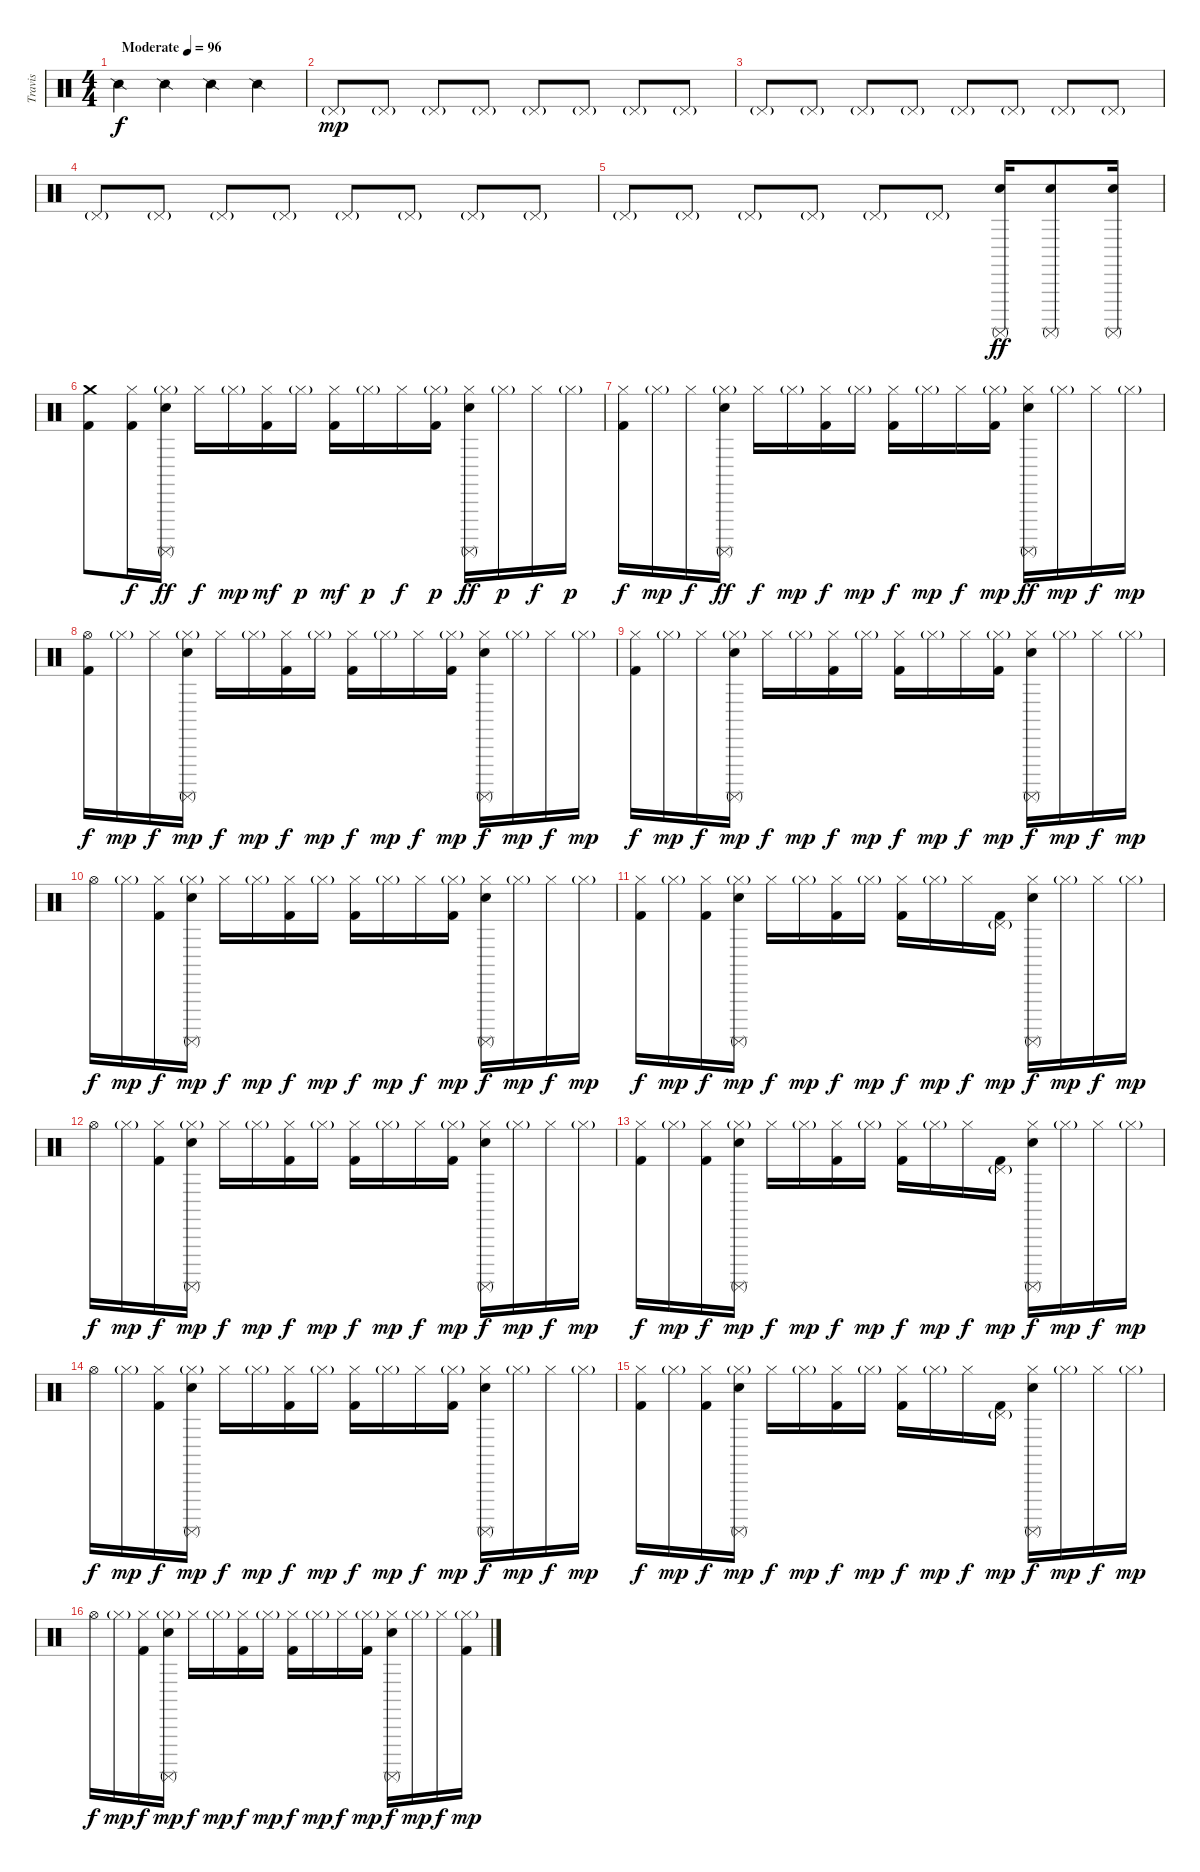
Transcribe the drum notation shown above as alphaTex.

\track ("Travis" "Travis") {instrument percussion bank 127}
\staff {score}
\articulation defaults
\ts (4 4)
\tempo (96 "Moderate")
\clef neutral
\ks c "Snare (side stick) 2".4{dy f} "Snare (side stick) 2".4 "Snare (side stick) 2".4 "Snare (side stick) 2".4
|
"Pedal Hi-Hat (hit)"{g}.8{dy mp} "Pedal Hi-Hat (hit)"{g}.8 "Pedal Hi-Hat (hit)"{g}.8 "Pedal Hi-Hat (hit)"{g}.8 "Pedal Hi-Hat (hit)"{g}.8 "Pedal Hi-Hat (hit)"{g}.8 "Pedal Hi-Hat (hit)"{g}.8 "Pedal Hi-Hat (hit)"{g}.8 |
"Pedal Hi-Hat (hit)"{g}.8 "Pedal Hi-Hat (hit)"{g}.8 "Pedal Hi-Hat (hit)"{g}.8 "Pedal Hi-Hat (hit)"{g}.8 "Pedal Hi-Hat (hit)"{g}.8 "Pedal Hi-Hat (hit)"{g}.8 "Pedal Hi-Hat (hit)"{g}.8 "Pedal Hi-Hat (hit)"{g}.8 |
"Pedal Hi-Hat (hit)"{g}.8 "Pedal Hi-Hat (hit)"{g}.8 "Pedal Hi-Hat (hit)"{g}.8 "Pedal Hi-Hat (hit)"{g}.8 "Pedal Hi-Hat (hit)"{g}.8 "Pedal Hi-Hat (hit)"{g}.8 "Pedal Hi-Hat (hit)"{g}.8 "Pedal Hi-Hat (hit)"{g}.8 |
"Pedal Hi-Hat (hit)"{g}.8 "Pedal Hi-Hat (hit)"{g}.8 "Pedal Hi-Hat (hit)"{g}.8 "Pedal Hi-Hat (hit)"{g}.8 "Pedal Hi-Hat (hit)"{g}.8 "Pedal Hi-Hat (hit)"{g}.8 ("Electric Snare (hit)" "Surdo (mute)").16{dy ff} ("Electric Snare (hit)" "Surdo (mute)").8 ("Electric Snare (hit)" "Surdo (mute)").16 |
("Crash medium (hit)" "Kick (hit) 2").8 ("Hi-Hat (closed)" "Kick (hit) 2").16{dy f} ("Hi-Hat (closed)"{g} "Electric Snare (hit)" "Surdo (mute)").16{dy ff} "Hi-Hat (closed)".16{dy f} "Hi-Hat (closed)"{g}.16{dy mp} ("Hi-Hat (closed)" "Kick (hit) 2").16{dy mf} "Hi-Hat (closed)"{g}.16{dy p} ("Hi-Hat (closed)" "Kick (hit) 2").16{dy mf} "Hi-Hat (closed)"{g}.16{dy p} "Hi-Hat (closed)".16{dy f} ("Hi-Hat (closed)"{g} "Kick (hit) 2").16{dy p} ("Hi-Hat (closed)" "Electric Snare (hit)" "Surdo (mute)").16{dy ff} "Hi-Hat (closed)"{g}.16{dy p} "Hi-Hat (closed)".16{dy f} "Hi-Hat (closed)"{g}.16{dy p} |
("Hi-Hat (closed)" "Kick (hit) 2").16{dy f} "Hi-Hat (closed)"{g}.16{dy mp} "Hi-Hat (closed)".16{dy f} ("Hi-Hat (closed)"{g} "Electric Snare (hit)" "Surdo (mute)").16{dy ff} "Hi-Hat (closed)".16{dy f} "Hi-Hat (closed)"{g}.16{dy mp} ("Hi-Hat (closed)" "Kick (hit) 2").16{dy f} "Hi-Hat (closed)"{g}.16{dy mp} ("Hi-Hat (closed)" "Kick (hit) 2").16{dy f} "Hi-Hat (closed)"{g}.16{dy mp} "Hi-Hat (closed)".16{dy f} ("Hi-Hat (closed)"{g} "Kick (hit) 2").16{dy mp} ("Hi-Hat (closed)" "Electric Snare (hit)" "Surdo (mute)").16{dy ff} "Hi-Hat (closed)"{g}.16{dy mp} "Hi-Hat (closed)".16{dy f} "Hi-Hat (closed)"{g}.16{dy mp} |
("Hi-Hat (open)" "Kick (hit) 2").16{dy f} "Hi-Hat (closed)"{g}.16{dy mp} "Hi-Hat (closed)".16{dy f} ("Hi-Hat (closed)"{g} "Electric Snare (hit)" "Surdo (mute)").16{dy mp} "Hi-Hat (closed)".16{dy f} "Hi-Hat (closed)"{g}.16{dy mp} ("Hi-Hat (closed)" "Kick (hit) 2").16{dy f} "Hi-Hat (closed)"{g}.16{dy mp} ("Hi-Hat (closed)" "Kick (hit) 2").16{dy f} "Hi-Hat (closed)"{g}.16{dy mp} "Hi-Hat (closed)".16{dy f} ("Hi-Hat (closed)"{g} "Kick (hit) 2").16{dy mp} ("Hi-Hat (closed)" "Electric Snare (hit)" "Surdo (mute)").16{dy f} "Hi-Hat (closed)"{g}.16{dy mp} "Hi-Hat (closed)".16{dy f} "Hi-Hat (closed)"{g}.16{dy mp} |
("Hi-Hat (closed)" "Kick (hit) 2").16{dy f} "Hi-Hat (closed)"{g}.16{dy mp} "Hi-Hat (closed)".16{dy f} ("Hi-Hat (closed)"{g} "Electric Snare (hit)" "Surdo (mute)").16{dy mp} "Hi-Hat (closed)".16{dy f} "Hi-Hat (closed)"{g}.16{dy mp} ("Hi-Hat (closed)" "Kick (hit) 2").16{dy f} "Hi-Hat (closed)"{g}.16{dy mp} ("Hi-Hat (closed)" "Kick (hit) 2").16{dy f} "Hi-Hat (closed)"{g}.16{dy mp} "Hi-Hat (closed)".16{dy f} ("Hi-Hat (closed)"{g} "Kick (hit) 2").16{dy mp} ("Hi-Hat (closed)" "Electric Snare (hit)" "Surdo (mute)").16{dy f} "Hi-Hat (closed)"{g}.16{dy mp} "Hi-Hat (closed)".16{dy f} "Hi-Hat (closed)"{g}.16{dy mp} |
"Hi-Hat (open)".16{dy f} "Hi-Hat (closed)"{g}.16{dy mp} ("Hi-Hat (closed)" "Kick (hit) 2").16{dy f} ("Hi-Hat (closed)"{g} "Electric Snare (hit)" "Surdo (mute)").16{dy mp} "Hi-Hat (closed)".16{dy f} "Hi-Hat (closed)"{g}.16{dy mp} ("Hi-Hat (closed)" "Kick (hit) 2").16{dy f} "Hi-Hat (closed)"{g}.16{dy mp} ("Hi-Hat (closed)" "Kick (hit) 2").16{dy f} "Hi-Hat (closed)"{g}.16{dy mp} "Hi-Hat (closed)".16{dy f} ("Hi-Hat (closed)"{g} "Kick (hit) 2").16{dy mp} ("Hi-Hat (closed)" "Electric Snare (hit)" "Surdo (mute)").16{dy f} "Hi-Hat (closed)"{g}.16{dy mp} "Hi-Hat (closed)".16{dy f} "Hi-Hat (closed)"{g}.16{dy mp} |
("Hi-Hat (closed)" "Kick (hit) 2").16{dy f} "Hi-Hat (closed)"{g}.16{dy mp} ("Hi-Hat (closed)" "Kick (hit) 2").16{dy f} ("Hi-Hat (closed)"{g} "Electric Snare (hit)" "Surdo (mute)").16{dy mp} "Hi-Hat (closed)".16{dy f} "Hi-Hat (closed)"{g}.16{dy mp} ("Hi-Hat (closed)" "Kick (hit) 2").16{dy f} "Hi-Hat (closed)"{g}.16{dy mp} ("Hi-Hat (closed)" "Kick (hit) 2").16{dy f} "Hi-Hat (closed)"{g}.16{dy mp} "Hi-Hat (closed)".16{dy f} ("Pedal Hi-Hat (hit)"{g} "Kick (hit) 2").16{dy mp} ("Hi-Hat (closed)" "Electric Snare (hit)" "Surdo (mute)").16{dy f} "Hi-Hat (closed)"{g}.16{dy mp} "Hi-Hat (closed)".16{dy f} "Hi-Hat (closed)"{g}.16{dy mp} |
"Hi-Hat (open)".16{dy f} "Hi-Hat (closed)"{g}.16{dy mp} ("Hi-Hat (closed)" "Kick (hit) 2").16{dy f} ("Hi-Hat (closed)"{g} "Electric Snare (hit)" "Surdo (mute)").16{dy mp} "Hi-Hat (closed)".16{dy f} "Hi-Hat (closed)"{g}.16{dy mp} ("Hi-Hat (closed)" "Kick (hit) 2").16{dy f} "Hi-Hat (closed)"{g}.16{dy mp} ("Hi-Hat (closed)" "Kick (hit) 2").16{dy f} "Hi-Hat (closed)"{g}.16{dy mp} "Hi-Hat (closed)".16{dy f} ("Hi-Hat (closed)"{g} "Kick (hit) 2").16{dy mp} ("Hi-Hat (closed)" "Electric Snare (hit)" "Surdo (mute)").16{dy f} "Hi-Hat (closed)"{g}.16{dy mp} "Hi-Hat (closed)".16{dy f} "Hi-Hat (closed)"{g}.16{dy mp} |
("Hi-Hat (closed)" "Kick (hit) 2").16{dy f} "Hi-Hat (closed)"{g}.16{dy mp} ("Hi-Hat (closed)" "Kick (hit) 2").16{dy f} ("Hi-Hat (closed)"{g} "Electric Snare (hit)" "Surdo (mute)").16{dy mp} "Hi-Hat (closed)".16{dy f} "Hi-Hat (closed)"{g}.16{dy mp} ("Hi-Hat (closed)" "Kick (hit) 2").16{dy f} "Hi-Hat (closed)"{g}.16{dy mp} ("Hi-Hat (closed)" "Kick (hit) 2").16{dy f} "Hi-Hat (closed)"{g}.16{dy mp} "Hi-Hat (closed)".16{dy f} ("Pedal Hi-Hat (hit)"{g} "Kick (hit) 2").16{dy mp} ("Hi-Hat (closed)" "Electric Snare (hit)" "Surdo (mute)").16{dy f} "Hi-Hat (closed)"{g}.16{dy mp} "Hi-Hat (closed)".16{dy f} "Hi-Hat (closed)"{g}.16{dy mp} |
"Hi-Hat (open)".16{dy f} "Hi-Hat (closed)"{g}.16{dy mp} ("Hi-Hat (closed)" "Kick (hit) 2").16{dy f} ("Hi-Hat (closed)"{g} "Electric Snare (hit)" "Surdo (mute)").16{dy mp} "Hi-Hat (closed)".16{dy f} "Hi-Hat (closed)"{g}.16{dy mp} ("Hi-Hat (closed)" "Kick (hit) 2").16{dy f} "Hi-Hat (closed)"{g}.16{dy mp} ("Hi-Hat (closed)" "Kick (hit) 2").16{dy f} "Hi-Hat (closed)"{g}.16{dy mp} "Hi-Hat (closed)".16{dy f} ("Hi-Hat (closed)"{g} "Kick (hit) 2").16{dy mp} ("Hi-Hat (closed)" "Electric Snare (hit)" "Surdo (mute)").16{dy f} "Hi-Hat (closed)"{g}.16{dy mp} "Hi-Hat (closed)".16{dy f} "Hi-Hat (closed)"{g}.16{dy mp} |
("Hi-Hat (closed)" "Kick (hit) 2").16{dy f} "Hi-Hat (closed)"{g}.16{dy mp} ("Hi-Hat (closed)" "Kick (hit) 2").16{dy f} ("Hi-Hat (closed)"{g} "Electric Snare (hit)" "Surdo (mute)").16{dy mp} "Hi-Hat (closed)".16{dy f} "Hi-Hat (closed)"{g}.16{dy mp} ("Hi-Hat (closed)" "Kick (hit) 2").16{dy f} "Hi-Hat (closed)"{g}.16{dy mp} ("Hi-Hat (closed)" "Kick (hit) 2").16{dy f} "Hi-Hat (closed)"{g}.16{dy mp} "Hi-Hat (closed)".16{dy f} ("Pedal Hi-Hat (hit)"{g} "Kick (hit) 2").16{dy mp} ("Hi-Hat (closed)" "Electric Snare (hit)" "Surdo (mute)").16{dy f} "Hi-Hat (closed)"{g}.16{dy mp} "Hi-Hat (closed)".16{dy f} "Hi-Hat (closed)"{g}.16{dy mp} |
"Hi-Hat (open)".16{dy f} "Hi-Hat (closed)"{g}.16{dy mp} ("Hi-Hat (closed)" "Kick (hit) 2").16{dy f} ("Hi-Hat (closed)"{g} "Electric Snare (hit)" "Surdo (mute)").16{dy mp} "Hi-Hat (closed)".16{dy f} "Hi-Hat (closed)"{g}.16{dy mp} ("Hi-Hat (closed)" "Kick (hit) 2").16{dy f} "Hi-Hat (closed)"{g}.16{dy mp} ("Hi-Hat (closed)" "Kick (hit) 2").16{dy f} "Hi-Hat (closed)"{g}.16{dy mp} "Hi-Hat (closed)".16{dy f} ("Hi-Hat (closed)"{g} "Kick (hit) 2").16{dy mp} ("Hi-Hat (closed)" "Electric Snare (hit)" "Surdo (mute)").16{dy f} "Hi-Hat (closed)"{g}.16{dy mp} "Hi-Hat (closed)".16{dy f} ("Hi-Hat (closed)"{g} "Kick (hit) 2").16{dy mp}
